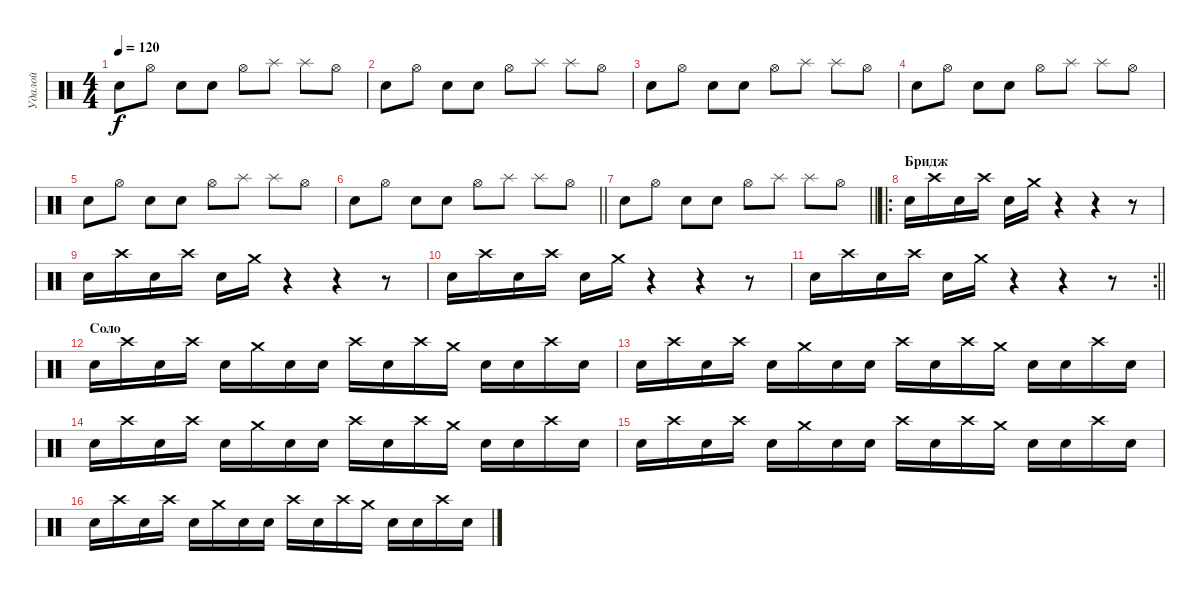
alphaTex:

\track ("Удалой" "Удалой") {instrument percussion}
\staff {score}
\articulation defaults
\ts (4 4)
\tempo 120
\clef neutral
\ks c "Snare (hit) 2".8{dy f} "Hi-Hat (open)".8 "Snare (hit) 2".8 "Snare (hit) 2".8 "Hi-Hat (open)".8 "Splash (hit)".8 "Splash (hit)".8 "Hi-Hat (open)".8
|
"Snare (hit) 2".8 "Hi-Hat (open)".8 "Snare (hit) 2".8 "Snare (hit) 2".8 "Hi-Hat (open)".8 "Splash (hit)".8 "Splash (hit)".8 "Hi-Hat (open)".8 |
"Snare (hit) 2".8 "Hi-Hat (open)".8 "Snare (hit) 2".8 "Snare (hit) 2".8 "Hi-Hat (open)".8 "Splash (hit)".8 "Splash (hit)".8 "Hi-Hat (open)".8 |
"Snare (hit) 2".8 "Hi-Hat (open)".8 "Snare (hit) 2".8 "Snare (hit) 2".8 "Hi-Hat (open)".8 "Splash (hit)".8 "Splash (hit)".8 "Hi-Hat (open)".8 |
"Snare (hit) 2".8 "Hi-Hat (open)".8 "Snare (hit) 2".8 "Snare (hit) 2".8 "Hi-Hat (open)".8 "Splash (hit)".8 "Splash (hit)".8 "Hi-Hat (open)".8 |
\barLineRight lightlight "Snare (hit) 2".8 "Hi-Hat (open)".8 "Snare (hit) 2".8 "Snare (hit) 2".8 "Hi-Hat (open)".8 "Splash (hit)".8 "Splash (hit)".8 "Hi-Hat (open)".8
|
\barLineRight lightlight "Snare (hit) 2".8 "Hi-Hat (open)".8 "Snare (hit) 2".8 "Snare (hit) 2".8 "Hi-Hat (open)".8 "Splash (hit)".8 "Splash (hit)".8 "Hi-Hat (open)".8
|
\ro
\section ("" "Бридж")
"Snare (hit) 2".16 "Crash high (hit)".16 "Snare (hit) 2".16 "Crash high (hit)".16 "Snare (hit) 2".16 "Crash medium (hit)".16 r.4 r.4 r.8 |
"Snare (hit) 2".16 "Crash high (hit)".16 "Snare (hit) 2".16 "Crash high (hit)".16 "Snare (hit) 2".16 "Crash medium (hit)".16 r.4 r.4 r.8 |
"Snare (hit) 2".16 "Crash high (hit)".16 "Snare (hit) 2".16 "Crash high (hit)".16 "Snare (hit) 2".16 "Crash medium (hit)".16 r.4 r.4 r.8 |
\rc 2
\barLineRight lightlight "Snare (hit) 2".16 "Crash high (hit)".16 "Snare (hit) 2".16 "Crash high (hit)".16 "Snare (hit) 2".16 "Crash medium (hit)".16
r.4 r.4 r.8 |
\section ("" "Соло")
"Snare (hit) 2".16 "Crash high (hit)".16 "Snare (hit) 2".16 "Crash high (hit)".16 "Snare (hit) 2".16 "Crash medium (hit)".16 "Snare (hit) 2".16 "Snare (hit) 2".16 "Crash high (hit)".16 "Snare (hit) 2".16 "Crash high (hit)".16 "Crash medium (hit)".16 "Snare (hit) 2".16 "Snare (hit) 2".16 "Crash high (hit)".16 "Snare (hit) 2".16 |
"Snare (hit) 2".16 "Crash high (hit)".16 "Snare (hit) 2".16 "Crash high (hit)".16 "Snare (hit) 2".16 "Crash medium (hit)".16 "Snare (hit) 2".16 "Snare (hit) 2".16 "Crash high (hit)".16 "Snare (hit) 2".16 "Crash high (hit)".16 "Crash medium (hit)".16 "Snare (hit) 2".16 "Snare (hit) 2".16 "Crash high (hit)".16 "Snare (hit) 2".16 |
"Snare (hit) 2".16 "Crash high (hit)".16 "Snare (hit) 2".16 "Crash high (hit)".16 "Snare (hit) 2".16 "Crash medium (hit)".16 "Snare (hit) 2".16 "Snare (hit) 2".16 "Crash high (hit)".16 "Snare (hit) 2".16 "Crash high (hit)".16 "Crash medium (hit)".16 "Snare (hit) 2".16 "Snare (hit) 2".16 "Crash high (hit)".16 "Snare (hit) 2".16 |
"Snare (hit) 2".16 "Crash high (hit)".16 "Snare (hit) 2".16 "Crash high (hit)".16 "Snare (hit) 2".16 "Crash medium (hit)".16 "Snare (hit) 2".16 "Snare (hit) 2".16 "Crash high (hit)".16 "Snare (hit) 2".16 "Crash high (hit)".16 "Crash medium (hit)".16 "Snare (hit) 2".16 "Snare (hit) 2".16 "Crash high (hit)".16 "Snare (hit) 2".16 |
"Snare (hit) 2".16 "Crash high (hit)".16 "Snare (hit) 2".16 "Crash high (hit)".16 "Snare (hit) 2".16 "Crash medium (hit)".16 "Snare (hit) 2".16 "Snare (hit) 2".16 "Crash high (hit)".16 "Snare (hit) 2".16 "Crash high (hit)".16 "Crash medium (hit)".16 "Snare (hit) 2".16 "Snare (hit) 2".16 "Crash high (hit)".16 "Snare (hit) 2".16
